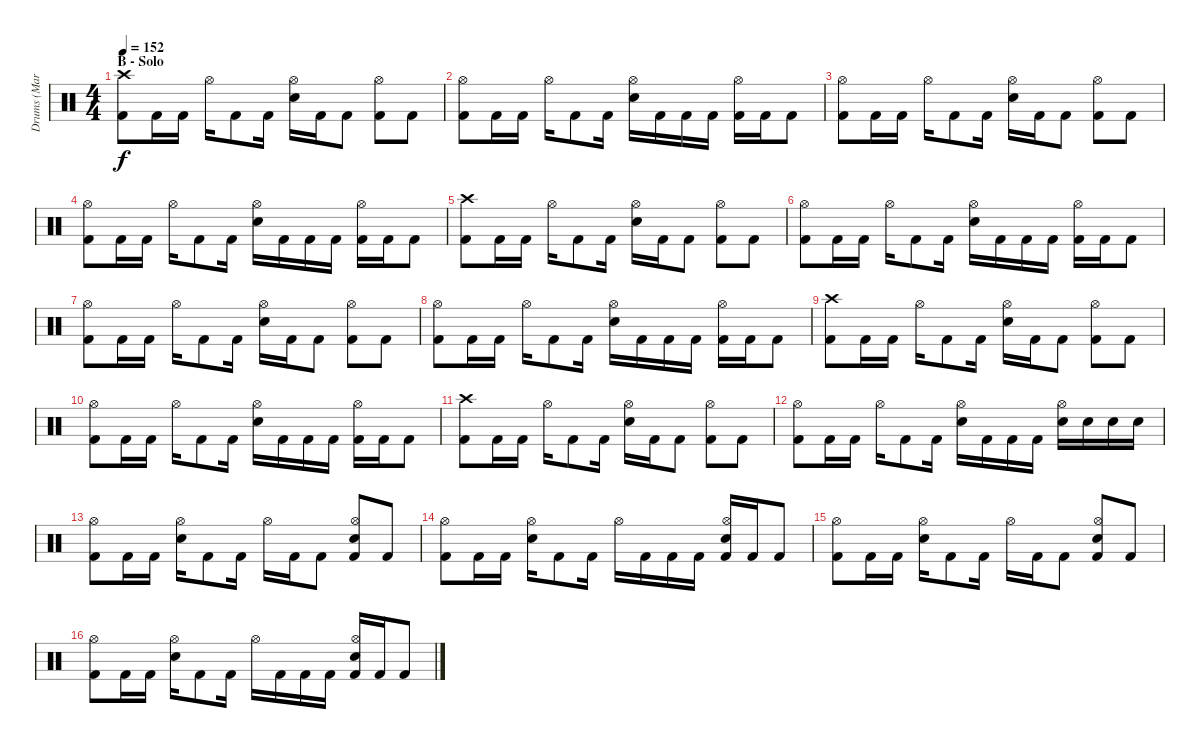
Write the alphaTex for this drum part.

\track ("Drums (Mark Arrington)" "Drums (Mar") {instrument percussion}
\staff {score}
\articulation defaults
\ts (4 4)
\section ("" "B - Solo")
\tempo 152
\clef neutral
\ks aminor
("Crash high (hit)" "Kick (hit) 2").8{dy f} "Kick (hit) 2".16 "Kick (hit) 2".16 "Hi-Hat (open)".16 "Kick (hit) 2".8 "Kick (hit) 2".16 ("Hi-Hat (open)" "Electric Snare (hit)").16 "Kick (hit) 2".16 "Kick (hit) 2".8 ("Hi-Hat (open)" "Kick (hit) 2").8 "Kick (hit) 2".8 |
("Hi-Hat (open)" "Kick (hit) 2").8 "Kick (hit) 2".16 "Kick (hit) 2".16 "Hi-Hat (open)".16 "Kick (hit) 2".8 "Kick (hit) 2".16 ("Hi-Hat (open)" "Electric Snare (hit)").16 "Kick (hit) 2".16 "Kick (hit) 2".16 "Kick (hit) 2".16 ("Hi-Hat (open)" "Kick (hit) 2").16 "Kick (hit) 2".16 "Kick (hit) 2".8 |
("Hi-Hat (open)" "Kick (hit) 2").8 "Kick (hit) 2".16 "Kick (hit) 2".16 "Hi-Hat (open)".16 "Kick (hit) 2".8 "Kick (hit) 2".16 ("Hi-Hat (open)" "Electric Snare (hit)").16 "Kick (hit) 2".16 "Kick (hit) 2".8 ("Hi-Hat (open)" "Kick (hit) 2").8 "Kick (hit) 2".8 |
("Hi-Hat (open)" "Kick (hit) 2").8 "Kick (hit) 2".16 "Kick (hit) 2".16 "Hi-Hat (open)".16 "Kick (hit) 2".8 "Kick (hit) 2".16 ("Hi-Hat (open)" "Electric Snare (hit)").16 "Kick (hit) 2".16 "Kick (hit) 2".16 "Kick (hit) 2".16 ("Hi-Hat (open)" "Kick (hit) 2").16 "Kick (hit) 2".16 "Kick (hit) 2".8 |
("Crash high (hit)" "Kick (hit) 2").8 "Kick (hit) 2".16 "Kick (hit) 2".16 "Hi-Hat (open)".16 "Kick (hit) 2".8 "Kick (hit) 2".16 ("Hi-Hat (open)" "Electric Snare (hit)").16 "Kick (hit) 2".16 "Kick (hit) 2".8 ("Hi-Hat (open)" "Kick (hit) 2").8 "Kick (hit) 2".8 |
("Hi-Hat (open)" "Kick (hit) 2").8 "Kick (hit) 2".16 "Kick (hit) 2".16 "Hi-Hat (open)".16 "Kick (hit) 2".8 "Kick (hit) 2".16 ("Hi-Hat (open)" "Electric Snare (hit)").16 "Kick (hit) 2".16 "Kick (hit) 2".16 "Kick (hit) 2".16 ("Hi-Hat (open)" "Kick (hit) 2").16 "Kick (hit) 2".16 "Kick (hit) 2".8 |
("Hi-Hat (open)" "Kick (hit) 2").8 "Kick (hit) 2".16 "Kick (hit) 2".16 "Hi-Hat (open)".16 "Kick (hit) 2".8 "Kick (hit) 2".16 ("Hi-Hat (open)" "Electric Snare (hit)").16 "Kick (hit) 2".16 "Kick (hit) 2".8 ("Hi-Hat (open)" "Kick (hit) 2").8 "Kick (hit) 2".8 |
("Hi-Hat (open)" "Kick (hit) 2").8 "Kick (hit) 2".16 "Kick (hit) 2".16 "Hi-Hat (open)".16 "Kick (hit) 2".8 "Kick (hit) 2".16 ("Hi-Hat (open)" "Electric Snare (hit)").16 "Kick (hit) 2".16 "Kick (hit) 2".16 "Kick (hit) 2".16 ("Hi-Hat (open)" "Kick (hit) 2").16 "Kick (hit) 2".16 "Kick (hit) 2".8 |
("Crash high (hit)" "Kick (hit) 2").8 "Kick (hit) 2".16 "Kick (hit) 2".16 "Hi-Hat (open)".16 "Kick (hit) 2".8 "Kick (hit) 2".16 ("Hi-Hat (open)" "Electric Snare (hit)").16 "Kick (hit) 2".16 "Kick (hit) 2".8 ("Hi-Hat (open)" "Kick (hit) 2").8 "Kick (hit) 2".8 |
("Hi-Hat (open)" "Kick (hit) 2").8 "Kick (hit) 2".16 "Kick (hit) 2".16 "Hi-Hat (open)".16 "Kick (hit) 2".8 "Kick (hit) 2".16 ("Hi-Hat (open)" "Electric Snare (hit)").16 "Kick (hit) 2".16 "Kick (hit) 2".16 "Kick (hit) 2".16 ("Hi-Hat (open)" "Kick (hit) 2").16 "Kick (hit) 2".16 "Kick (hit) 2".8 |
("Crash high (hit)" "Kick (hit) 2").8 "Kick (hit) 2".16 "Kick (hit) 2".16 "Hi-Hat (open)".16 "Kick (hit) 2".8 "Kick (hit) 2".16 ("Hi-Hat (open)" "Electric Snare (hit)").16 "Kick (hit) 2".16 "Kick (hit) 2".8 ("Hi-Hat (open)" "Kick (hit) 2").8 "Kick (hit) 2".8 |
("Hi-Hat (open)" "Kick (hit) 2").8 "Kick (hit) 2".16 "Kick (hit) 2".16 "Hi-Hat (open)".16 "Kick (hit) 2".8 "Kick (hit) 2".16 ("Hi-Hat (open)" "Electric Snare (hit)").16 "Kick (hit) 2".16 "Kick (hit) 2".16 "Kick (hit) 2".16 ("Hi-Hat (open)" "Electric Snare (hit)").16 "Electric Snare (hit)".16 "Electric Snare (hit)".16 "Electric Snare (hit)".16 |
("Hi-Hat (open)" "Kick (hit) 2").8 "Kick (hit) 2".16 "Kick (hit) 2".16 ("Hi-Hat (open)" "Electric Snare (hit)").16 "Kick (hit) 2".8 "Kick (hit) 2".16 "Hi-Hat (open)".16 "Kick (hit) 2".16 "Kick (hit) 2".8 ("Hi-Hat (open)" "Electric Snare (hit)" "Kick (hit) 2").8 "Kick (hit) 2".8 |
("Hi-Hat (open)" "Kick (hit) 2").8 "Kick (hit) 2".16 "Kick (hit) 2".16 ("Hi-Hat (open)" "Electric Snare (hit)").16 "Kick (hit) 2".8 "Kick (hit) 2".16 "Hi-Hat (open)".16 "Kick (hit) 2".16 "Kick (hit) 2".16 "Kick (hit) 2".16 ("Hi-Hat (open)" "Electric Snare (hit)" "Kick (hit) 2").16 "Kick (hit) 2".16 "Kick (hit) 2".8 |
("Hi-Hat (open)" "Kick (hit) 2").8 "Kick (hit) 2".16 "Kick (hit) 2".16 ("Hi-Hat (open)" "Electric Snare (hit)").16 "Kick (hit) 2".8 "Kick (hit) 2".16 "Hi-Hat (open)".16 "Kick (hit) 2".16 "Kick (hit) 2".8 ("Hi-Hat (open)" "Electric Snare (hit)" "Kick (hit) 2").8 "Kick (hit) 2".8 |
("Hi-Hat (open)" "Kick (hit) 2").8 "Kick (hit) 2".16 "Kick (hit) 2".16 ("Hi-Hat (open)" "Electric Snare (hit)").16 "Kick (hit) 2".8 "Kick (hit) 2".16 "Hi-Hat (open)".16 "Kick (hit) 2".16 "Kick (hit) 2".16 "Kick (hit) 2".16 ("Hi-Hat (open)" "Electric Snare (hit)" "Kick (hit) 2").16 "Kick (hit) 2".16 "Kick (hit) 2".8
